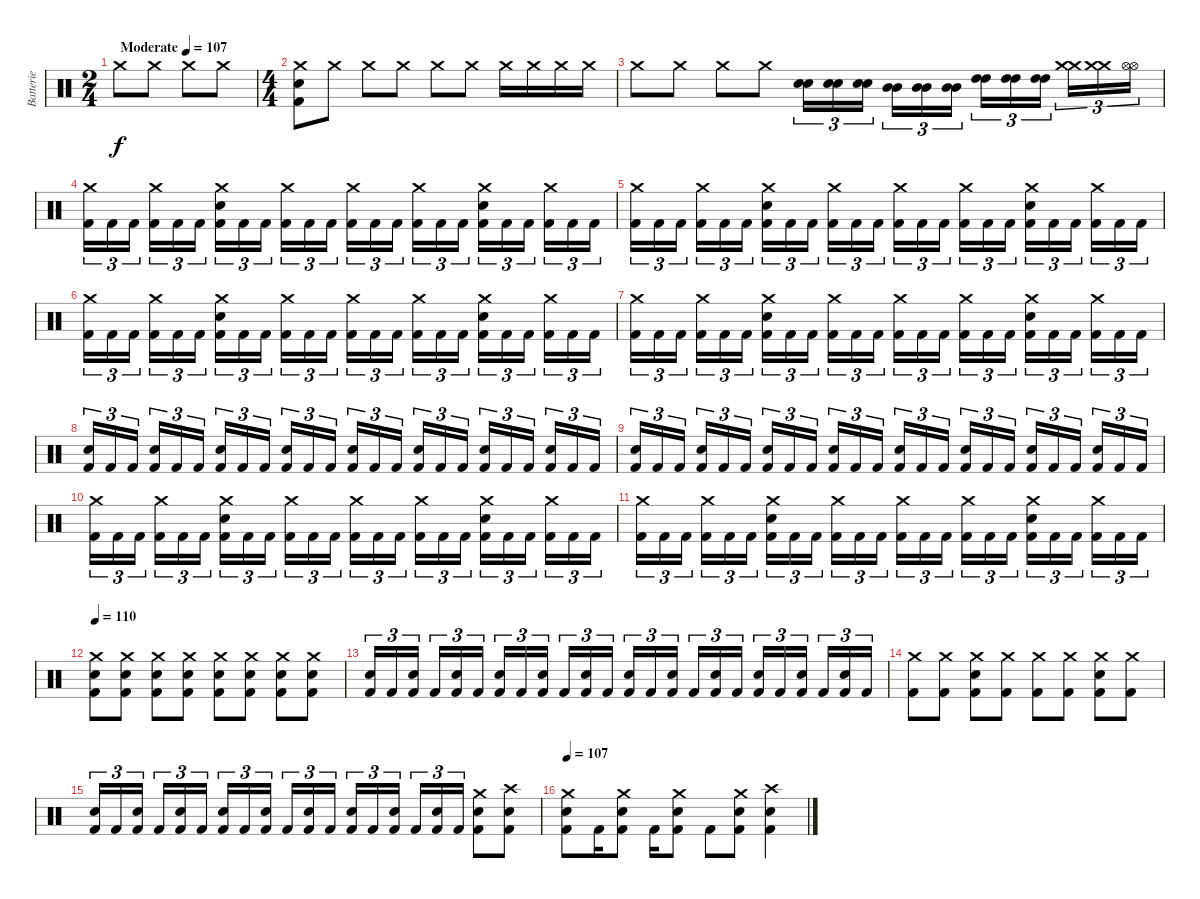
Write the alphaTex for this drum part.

\track ("Batterie" "Batterie") {instrument percussion}
\staff {score}
\articulation defaults
\ts (2 4)
\tempo (107 "Moderate")
\clef neutral
\ks c "Crash medium (hit)".8{dy f} "Crash medium (hit)".8 "Crash medium (hit)".8 "Crash medium (hit)".8
|
\ts (4 4)
("Crash medium (hit)" "Electric Snare (hit)" "Kick (hit) 2").8 "Crash medium (hit)".8 "Crash medium (hit)".8 "Crash medium (hit)".8 "Crash medium (hit)".8 "Crash medium (hit)".8 "Crash medium (hit)".16 "Crash medium (hit)".16 "Crash medium (hit)".16 "Crash medium (hit)".16 |
"Crash medium (hit)".8 "Crash medium (hit)".8 "Crash medium (hit)".8 "Crash medium (hit)".8 ("Electric Snare (hit)" "Electric Snare (hit)").16{tu (3 2)} ("Electric Snare (hit)" "Electric Snare (hit)").16{tu (3 2)} ("Electric Snare (hit)" "Electric Snare (hit)").16{tu (3 2) beam splitsecondary} ("Mid Tom (hit)" "Mid Tom (hit)").16{tu (3 2)} ("Mid Tom (hit)" "Mid Tom (hit)").16{tu (3 2)} ("Mid Tom (hit)" "Mid Tom (hit)").16{tu (3 2)} ("High Tom (hit)" "High Tom (hit)").16{tu (3 2)} ("High Tom (hit)" "High Tom (hit)").16{tu (3 2)} ("High Tom (hit)" "High Tom (hit)").16{tu (3 2) beam splitsecondary} ("Crash medium (hit)" "Crash medium (hit)").16{tu (3 2)} ("Crash medium (hit)" "Crash medium (hit)").16{tu (3 2)} ("Hi-Hat (open)" "Hi-Hat (open)").16{tu (3 2)} |
("Crash medium (hit)" "Kick (hit) 2").16{tu (3 2)} "Kick (hit) 2".16{tu (3 2)} "Kick (hit) 2".16{tu (3 2) beam splitsecondary} ("Crash medium (hit)" "Kick (hit) 2").16{tu (3 2)} "Kick (hit) 2".16{tu (3 2)} "Kick (hit) 2".16{tu (3 2)} ("Crash medium (hit)" "Electric Snare (hit)" "Kick (hit) 2").16{tu (3 2)} "Kick (hit) 2".16{tu (3 2)} "Kick (hit) 2".16{tu (3 2) beam splitsecondary} ("Crash medium (hit)" "Kick (hit) 2").16{tu (3 2)} "Kick (hit) 2".16{tu (3 2)} "Kick (hit) 2".16{tu (3 2)} ("Crash medium (hit)" "Kick (hit) 2").16{tu (3 2)} "Kick (hit) 2".16{tu (3 2)} "Kick (hit) 2".16{tu (3 2) beam splitsecondary} ("Crash medium (hit)" "Kick (hit) 2").16{tu (3 2)} "Kick (hit) 2".16{tu (3 2)} "Kick (hit) 2".16{tu (3 2)} ("Crash medium (hit)" "Electric Snare (hit)" "Kick (hit) 2").16{tu (3 2)} "Kick (hit) 2".16{tu (3 2)} "Kick (hit) 2".16{tu (3 2) beam splitsecondary} ("Crash medium (hit)" "Kick (hit) 2").16{tu (3 2)} "Kick (hit) 2".16{tu (3 2)} "Kick (hit) 2".16{tu (3 2)} |
("Crash medium (hit)" "Kick (hit) 2").16{tu (3 2)} "Kick (hit) 2".16{tu (3 2)} "Kick (hit) 2".16{tu (3 2) beam splitsecondary} ("Crash medium (hit)" "Kick (hit) 2").16{tu (3 2)} "Kick (hit) 2".16{tu (3 2)} "Kick (hit) 2".16{tu (3 2)} ("Crash medium (hit)" "Electric Snare (hit)" "Kick (hit) 2").16{tu (3 2)} "Kick (hit) 2".16{tu (3 2)} "Kick (hit) 2".16{tu (3 2) beam splitsecondary} ("Crash medium (hit)" "Kick (hit) 2").16{tu (3 2)} "Kick (hit) 2".16{tu (3 2)} "Kick (hit) 2".16{tu (3 2)} ("Crash medium (hit)" "Kick (hit) 2").16{tu (3 2)} "Kick (hit) 2".16{tu (3 2)} "Kick (hit) 2".16{tu (3 2) beam splitsecondary} ("Crash medium (hit)" "Kick (hit) 2").16{tu (3 2)} "Kick (hit) 2".16{tu (3 2)} "Kick (hit) 2".16{tu (3 2)} ("Crash medium (hit)" "Electric Snare (hit)" "Kick (hit) 2").16{tu (3 2)} "Kick (hit) 2".16{tu (3 2)} "Kick (hit) 2".16{tu (3 2) beam splitsecondary} ("Crash medium (hit)" "Kick (hit) 2").16{tu (3 2)} "Kick (hit) 2".16{tu (3 2)} "Kick (hit) 2".16{tu (3 2)} |
("Crash medium (hit)" "Kick (hit) 2").16{tu (3 2)} "Kick (hit) 2".16{tu (3 2)} "Kick (hit) 2".16{tu (3 2) beam splitsecondary} ("Crash medium (hit)" "Kick (hit) 2").16{tu (3 2)} "Kick (hit) 2".16{tu (3 2)} "Kick (hit) 2".16{tu (3 2)} ("Crash medium (hit)" "Electric Snare (hit)" "Kick (hit) 2").16{tu (3 2)} "Kick (hit) 2".16{tu (3 2)} "Kick (hit) 2".16{tu (3 2) beam splitsecondary} ("Crash medium (hit)" "Kick (hit) 2").16{tu (3 2)} "Kick (hit) 2".16{tu (3 2)} "Kick (hit) 2".16{tu (3 2)} ("Crash medium (hit)" "Kick (hit) 2").16{tu (3 2)} "Kick (hit) 2".16{tu (3 2)} "Kick (hit) 2".16{tu (3 2) beam splitsecondary} ("Crash medium (hit)" "Kick (hit) 2").16{tu (3 2)} "Kick (hit) 2".16{tu (3 2)} "Kick (hit) 2".16{tu (3 2)} ("Crash medium (hit)" "Electric Snare (hit)" "Kick (hit) 2").16{tu (3 2)} "Kick (hit) 2".16{tu (3 2)} "Kick (hit) 2".16{tu (3 2) beam splitsecondary} ("Crash medium (hit)" "Kick (hit) 2").16{tu (3 2)} "Kick (hit) 2".16{tu (3 2)} "Kick (hit) 2".16{tu (3 2)} |
("Crash medium (hit)" "Kick (hit) 2").16{tu (3 2)} "Kick (hit) 2".16{tu (3 2)} "Kick (hit) 2".16{tu (3 2) beam splitsecondary} ("Crash medium (hit)" "Kick (hit) 2").16{tu (3 2)} "Kick (hit) 2".16{tu (3 2)} "Kick (hit) 2".16{tu (3 2)} ("Crash medium (hit)" "Electric Snare (hit)" "Kick (hit) 2").16{tu (3 2)} "Kick (hit) 2".16{tu (3 2)} "Kick (hit) 2".16{tu (3 2) beam splitsecondary} ("Crash medium (hit)" "Kick (hit) 2").16{tu (3 2)} "Kick (hit) 2".16{tu (3 2)} "Kick (hit) 2".16{tu (3 2)} ("Crash medium (hit)" "Kick (hit) 2").16{tu (3 2)} "Kick (hit) 2".16{tu (3 2)} "Kick (hit) 2".16{tu (3 2) beam splitsecondary} ("Crash medium (hit)" "Kick (hit) 2").16{tu (3 2)} "Kick (hit) 2".16{tu (3 2)} "Kick (hit) 2".16{tu (3 2)} ("Crash medium (hit)" "Electric Snare (hit)" "Kick (hit) 2").16{tu (3 2)} "Kick (hit) 2".16{tu (3 2)} "Kick (hit) 2".16{tu (3 2) beam splitsecondary} ("Crash medium (hit)" "Kick (hit) 2").16{tu (3 2)} "Kick (hit) 2".16{tu (3 2)} "Kick (hit) 2".16{tu (3 2)} |
("Electric Snare (hit)" "Kick (hit) 2").16{tu (3 2)} "Kick (hit) 2".16{tu (3 2)} "Kick (hit) 2".16{tu (3 2) beam splitsecondary} ("Electric Snare (hit)" "Kick (hit) 2").16{tu (3 2)} "Kick (hit) 2".16{tu (3 2)} "Kick (hit) 2".16{tu (3 2)} ("Electric Snare (hit)" "Kick (hit) 2").16{tu (3 2)} "Kick (hit) 2".16{tu (3 2)} "Kick (hit) 2".16{tu (3 2) beam splitsecondary} ("Electric Snare (hit)" "Kick (hit) 2").16{tu (3 2)} "Kick (hit) 2".16{tu (3 2)} "Kick (hit) 2".16{tu (3 2)} ("Electric Snare (hit)" "Kick (hit) 2").16{tu (3 2)} "Kick (hit) 2".16{tu (3 2)} "Kick (hit) 2".16{tu (3 2) beam splitsecondary} ("Electric Snare (hit)" "Kick (hit) 2").16{tu (3 2)} "Kick (hit) 2".16{tu (3 2)} "Kick (hit) 2".16{tu (3 2)} ("Electric Snare (hit)" "Kick (hit) 2").16{tu (3 2)} "Kick (hit) 2".16{tu (3 2)} "Kick (hit) 2".16{tu (3 2) beam splitsecondary} ("Electric Snare (hit)" "Kick (hit) 2").16{tu (3 2)} "Kick (hit) 2".16{tu (3 2)} "Kick (hit) 2".16{tu (3 2)} |
("Electric Snare (hit)" "Kick (hit) 2").16{tu (3 2)} "Kick (hit) 2".16{tu (3 2)} "Kick (hit) 2".16{tu (3 2) beam splitsecondary} ("Electric Snare (hit)" "Kick (hit) 2").16{tu (3 2)} "Kick (hit) 2".16{tu (3 2)} "Kick (hit) 2".16{tu (3 2)} ("Electric Snare (hit)" "Kick (hit) 2").16{tu (3 2)} "Kick (hit) 2".16{tu (3 2)} "Kick (hit) 2".16{tu (3 2) beam splitsecondary} ("Electric Snare (hit)" "Kick (hit) 2").16{tu (3 2)} "Kick (hit) 2".16{tu (3 2)} "Kick (hit) 2".16{tu (3 2)} ("Electric Snare (hit)" "Kick (hit) 2").16{tu (3 2)} "Kick (hit) 2".16{tu (3 2)} "Kick (hit) 2".16{tu (3 2) beam splitsecondary} ("Electric Snare (hit)" "Kick (hit) 2").16{tu (3 2)} "Kick (hit) 2".16{tu (3 2)} "Kick (hit) 2".16{tu (3 2)} ("Electric Snare (hit)" "Kick (hit) 2").16{tu (3 2)} "Kick (hit) 2".16{tu (3 2)} "Kick (hit) 2".16{tu (3 2) beam splitsecondary} ("Electric Snare (hit)" "Kick (hit) 2").16{tu (3 2)} "Kick (hit) 2".16{tu (3 2)} "Kick (hit) 2".16{tu (3 2)} |
("Crash medium (hit)" "Kick (hit) 2").16{tu (3 2)} "Kick (hit) 2".16{tu (3 2)} "Kick (hit) 2".16{tu (3 2) beam splitsecondary} ("Crash medium (hit)" "Kick (hit) 2").16{tu (3 2)} "Kick (hit) 2".16{tu (3 2)} "Kick (hit) 2".16{tu (3 2)} ("Crash medium (hit)" "Electric Snare (hit)" "Kick (hit) 2").16{tu (3 2)} "Kick (hit) 2".16{tu (3 2)} "Kick (hit) 2".16{tu (3 2) beam splitsecondary} ("Crash medium (hit)" "Kick (hit) 2").16{tu (3 2)} "Kick (hit) 2".16{tu (3 2)} "Kick (hit) 2".16{tu (3 2)} ("Crash medium (hit)" "Kick (hit) 2").16{tu (3 2)} "Kick (hit) 2".16{tu (3 2)} "Kick (hit) 2".16{tu (3 2) beam splitsecondary} ("Crash medium (hit)" "Kick (hit) 2").16{tu (3 2)} "Kick (hit) 2".16{tu (3 2)} "Kick (hit) 2".16{tu (3 2)} ("Crash medium (hit)" "Electric Snare (hit)" "Kick (hit) 2").16{tu (3 2)} "Kick (hit) 2".16{tu (3 2)} "Kick (hit) 2".16{tu (3 2) beam splitsecondary} ("Crash medium (hit)" "Kick (hit) 2").16{tu (3 2)} "Kick (hit) 2".16{tu (3 2)} "Kick (hit) 2".16{tu (3 2)} |
("Crash medium (hit)" "Kick (hit) 2").16{tu (3 2)} "Kick (hit) 2".16{tu (3 2)} "Kick (hit) 2".16{tu (3 2) beam splitsecondary} ("Crash medium (hit)" "Kick (hit) 2").16{tu (3 2)} "Kick (hit) 2".16{tu (3 2)} "Kick (hit) 2".16{tu (3 2)} ("Crash medium (hit)" "Electric Snare (hit)" "Kick (hit) 2").16{tu (3 2)} "Kick (hit) 2".16{tu (3 2)} "Kick (hit) 2".16{tu (3 2) beam splitsecondary} ("Crash medium (hit)" "Kick (hit) 2").16{tu (3 2)} "Kick (hit) 2".16{tu (3 2)} "Kick (hit) 2".16{tu (3 2)} ("Crash medium (hit)" "Kick (hit) 2").16{tu (3 2)} "Kick (hit) 2".16{tu (3 2)} "Kick (hit) 2".16{tu (3 2) beam splitsecondary} ("Crash medium (hit)" "Kick (hit) 2").16{tu (3 2)} "Kick (hit) 2".16{tu (3 2)} "Kick (hit) 2".16{tu (3 2)} ("Crash medium (hit)" "Electric Snare (hit)" "Kick (hit) 2").16{tu (3 2)} "Kick (hit) 2".16{tu (3 2)} "Kick (hit) 2".16{tu (3 2) beam splitsecondary} ("Crash medium (hit)" "Kick (hit) 2").16{tu (3 2)} "Kick (hit) 2".16{tu (3 2)} "Kick (hit) 2".16{tu (3 2)} |
\tempo 110
("Crash medium (hit)" "Electric Snare (hit)" "Kick (hit) 2").8 ("Crash medium (hit)" "Electric Snare (hit)" "Kick (hit) 2").8 ("Crash medium (hit)" "Electric Snare (hit)" "Kick (hit) 2").8 ("Crash medium (hit)" "Electric Snare (hit)" "Kick (hit) 2").8 ("Crash medium (hit)" "Electric Snare (hit)" "Kick (hit) 2").8 ("Crash medium (hit)" "Electric Snare (hit)" "Kick (hit) 2").8 ("Crash medium (hit)" "Electric Snare (hit)" "Kick (hit) 2").8 ("Crash medium (hit)" "Electric Snare (hit)" "Kick (hit) 2").8 |
("Electric Snare (hit)" "Kick (hit) 2").16{tu (3 2)} "Kick (hit) 2".16{tu (3 2)} ("Electric Snare (hit)" "Kick (hit) 2").16{tu (3 2) beam splitsecondary} "Kick (hit) 2".16{tu (3 2)} ("Electric Snare (hit)" "Kick (hit) 2").16{tu (3 2)} "Kick (hit) 2".16{tu (3 2)} ("Electric Snare (hit)" "Kick (hit) 2").16{tu (3 2)} "Kick (hit) 2".16{tu (3 2)} ("Electric Snare (hit)" "Kick (hit) 2").16{tu (3 2) beam splitsecondary} "Kick (hit) 2".16{tu (3 2)} ("Electric Snare (hit)" "Kick (hit) 2").16{tu (3 2)} "Kick (hit) 2".16{tu (3 2)} ("Electric Snare (hit)" "Kick (hit) 2").16{tu (3 2)} "Kick (hit) 2".16{tu (3 2)} ("Electric Snare (hit)" "Kick (hit) 2").16{tu (3 2) beam splitsecondary} "Kick (hit) 2".16{tu (3 2)} ("Electric Snare (hit)" "Kick (hit) 2").16{tu (3 2)} "Kick (hit) 2".16{tu (3 2)} ("Electric Snare (hit)" "Kick (hit) 2").16{tu (3 2)} "Kick (hit) 2".16{tu (3 2)} ("Electric Snare (hit)" "Kick (hit) 2").16{tu (3 2) beam splitsecondary} "Kick (hit) 2".16{tu (3 2)} ("Electric Snare (hit)" "Kick (hit) 2").16{tu (3 2)} "Kick (hit) 2".16{tu (3 2)} |
("Crash medium (hit)" "Kick (hit) 2").8 ("Crash medium (hit)" "Kick (hit) 2").8 ("Crash medium (hit)" "Electric Snare (hit)" "Kick (hit) 2").8 ("Crash medium (hit)" "Kick (hit) 2").8 ("Crash medium (hit)" "Kick (hit) 2").8 ("Crash medium (hit)" "Kick (hit) 2").8 ("Crash medium (hit)" "Electric Snare (hit)" "Kick (hit) 2").8 ("Crash medium (hit)" "Kick (hit) 2").8 |
("Electric Snare (hit)" "Kick (hit) 2").16{tu (3 2)} "Kick (hit) 2".16{tu (3 2)} ("Electric Snare (hit)" "Kick (hit) 2").16{tu (3 2) beam splitsecondary} "Kick (hit) 2".16{tu (3 2)} ("Electric Snare (hit)" "Kick (hit) 2").16{tu (3 2)} "Kick (hit) 2".16{tu (3 2)} ("Electric Snare (hit)" "Kick (hit) 2").16{tu (3 2)} "Kick (hit) 2".16{tu (3 2)} ("Electric Snare (hit)" "Kick (hit) 2").16{tu (3 2) beam splitsecondary} "Kick (hit) 2".16{tu (3 2)} ("Electric Snare (hit)" "Kick (hit) 2").16{tu (3 2)} "Kick (hit) 2".16{tu (3 2)} ("Electric Snare (hit)" "Kick (hit) 2").16{tu (3 2)} "Kick (hit) 2".16{tu (3 2)} ("Electric Snare (hit)" "Kick (hit) 2").16{tu (3 2) beam splitsecondary} "Kick (hit) 2".16{tu (3 2)} ("Electric Snare (hit)" "Kick (hit) 2").16{tu (3 2)} "Kick (hit) 2".16{tu (3 2)} ("Crash medium (hit)" "Electric Snare (hit)" "Kick (hit) 2").8 ("Crash high (hit)" "Electric Snare (hit)" "Kick (hit) 2").8 |
\tempo 107
("Crash medium (hit)" "Electric Snare (hit)" "Kick (hit) 2").8 "Kick (hit) 2".16 ("Crash medium (hit)" "Electric Snare (hit)" "Kick (hit) 2").8 "Kick (hit) 2".16 ("Crash medium (hit)" "Electric Snare (hit)" "Kick (hit) 2").8 "Kick (hit) 2".8 ("Crash medium (hit)" "Electric Snare (hit)" "Kick (hit) 2").8 ("Crash high (hit)" "Electric Snare (hit)" "Kick (hit) 2").4
